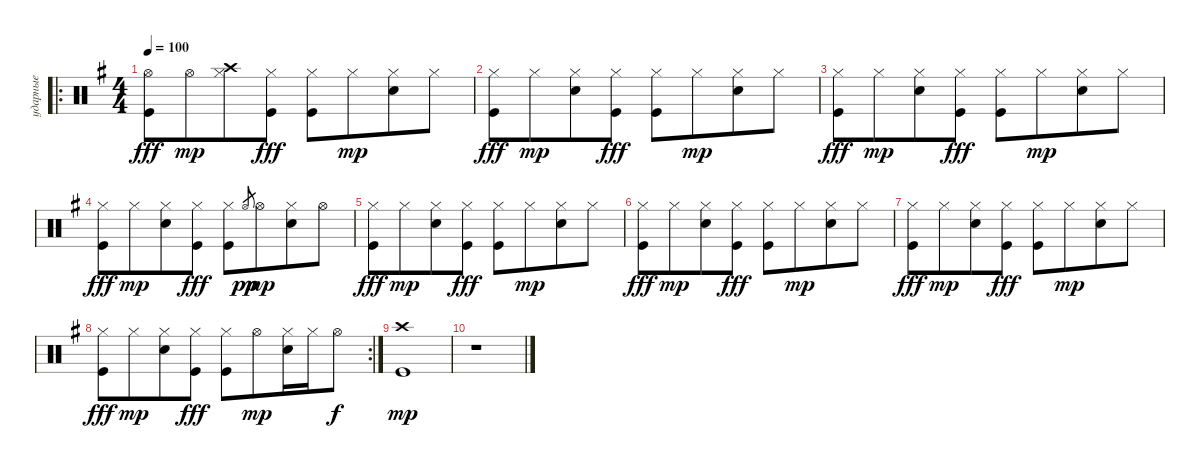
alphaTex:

\track ("ударные" "ударные") {instrument percussion}
\staff {score}
\articulation defaults
\ro
\ts (4 4)
\section ("" "")
\tempo 100
\clef neutral
\ks eminor
("Hi-Hat (open)" "Kick (hit)").8{dy fff} "Hi-Hat (open)".8{dy mp beam merge} ("Hi-Hat (closed)" "Crash high (hit)").8 ("Hi-Hat (closed)" "Kick (hit)").8{dy fff} ("Hi-Hat (closed)" "Kick (hit)").8 "Hi-Hat (closed)".8{dy mp beam merge} ("Hi-Hat (closed)" "Snare (hit) 2").8 "Hi-Hat (closed)".8 |
("Hi-Hat (closed)" "Kick (hit)").8{dy fff} "Hi-Hat (closed)".8{dy mp beam merge} ("Hi-Hat (closed)" "Snare (hit) 2").8 ("Hi-Hat (closed)" "Kick (hit)").8{dy fff} ("Hi-Hat (closed)" "Kick (hit)").8 "Hi-Hat (closed)".8{dy mp beam merge} ("Hi-Hat (closed)" "Snare (hit) 2").8 "Hi-Hat (closed)".8 |
("Hi-Hat (closed)" "Kick (hit)").8{dy fff} "Hi-Hat (closed)".8{dy mp beam merge} ("Hi-Hat (closed)" "Snare (hit) 2").8 ("Hi-Hat (closed)" "Kick (hit)").8{dy fff} ("Hi-Hat (closed)" "Kick (hit)").8 "Hi-Hat (closed)".8{dy mp beam merge} ("Hi-Hat (closed)" "Snare (hit) 2").8 "Hi-Hat (closed)".8 |
("Hi-Hat (closed)" "Kick (hit)").8{dy fff} "Hi-Hat (closed)".8{dy mp beam merge} ("Hi-Hat (closed)" "Snare (hit) 2").8 ("Hi-Hat (closed)" "Kick (hit)").8{dy fff} ("Hi-Hat (closed)" "Kick (hit)").8 "Hi-Hat (open)"{x}.8{gr dy pp} "Hi-Hat (open)".8{dy mp beam merge} ("Hi-Hat (closed)" "Snare (hit) 2").8 "Hi-Hat (open)".8 |
("Hi-Hat (closed)" "Kick (hit)").8{dy fff} "Hi-Hat (closed)".8{dy mp beam merge} ("Hi-Hat (closed)" "Snare (hit) 2").8 ("Hi-Hat (closed)" "Kick (hit)").8{dy fff} ("Hi-Hat (closed)" "Kick (hit)").8 "Hi-Hat (closed)".8{dy mp beam merge} ("Hi-Hat (closed)" "Snare (hit) 2").8 "Hi-Hat (closed)".8 |
("Hi-Hat (closed)" "Kick (hit)").8{dy fff} "Hi-Hat (closed)".8{dy mp beam merge} ("Hi-Hat (closed)" "Snare (hit) 2").8 ("Hi-Hat (closed)" "Kick (hit)").8{dy fff} ("Hi-Hat (closed)" "Kick (hit)").8 "Hi-Hat (closed)".8{dy mp beam merge} ("Hi-Hat (closed)" "Snare (hit) 2").8 "Hi-Hat (closed)".8 |
("Hi-Hat (closed)" "Kick (hit)").8{dy fff} "Hi-Hat (closed)".8{dy mp beam merge} ("Hi-Hat (closed)" "Snare (hit) 2").8 ("Hi-Hat (closed)" "Kick (hit)").8{dy fff} ("Hi-Hat (closed)" "Kick (hit)").8 "Hi-Hat (closed)".8{dy mp beam merge} ("Hi-Hat (closed)" "Snare (hit) 2").8 "Hi-Hat (closed)".8 |
\rc 2
("Hi-Hat (closed)" "Kick (hit)").8{dy fff} "Hi-Hat (closed)".8{dy mp beam merge} ("Hi-Hat (closed)" "Snare (hit) 2").8 ("Hi-Hat (closed)" "Kick (hit)").8{dy fff} ("Hi-Hat (closed)" "Kick (hit)").8 "Hi-Hat (open)".8{dy mp beam merge} ("Hi-Hat (closed)" "Snare (hit) 2").16 "Hi-Hat (closed)".16 "Hi-Hat (open)".8{dy f} |
("Kick (hit)" "Crash high (hit)").1{dy mp} |
r.1
